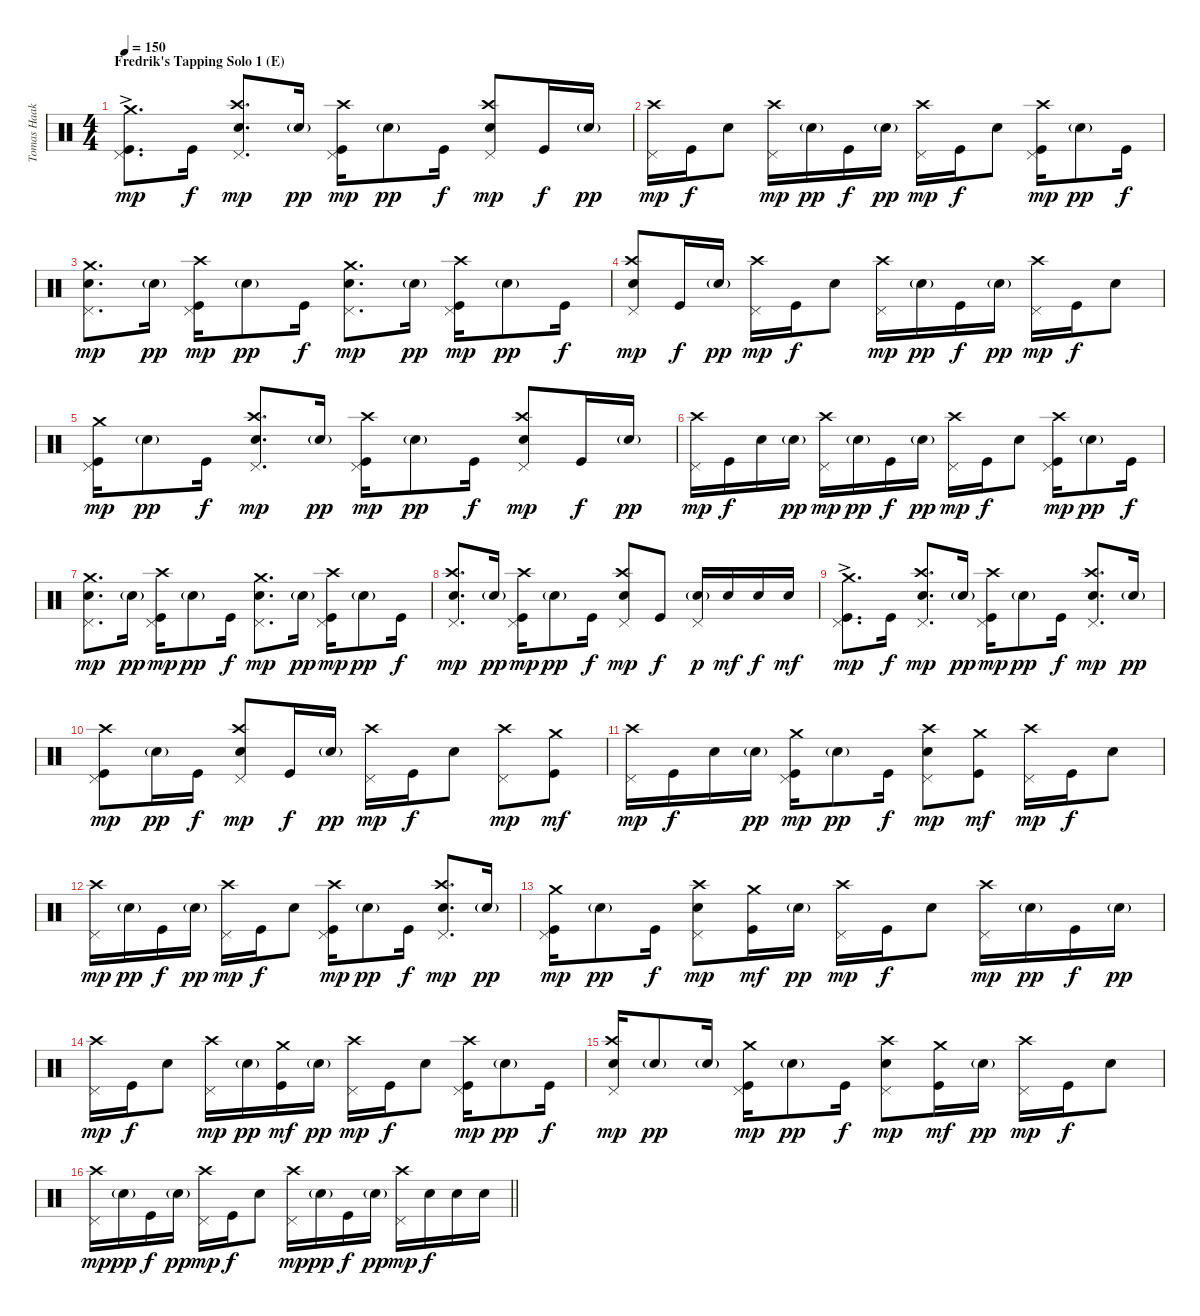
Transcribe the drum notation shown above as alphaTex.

\track ("Tomas Haake (Drums)" "Tomas Haak") {instrument percussion}
\staff {score}
\articulation defaults
\ts (4 4)
\section ("" "Fredrik's Tapping Solo 1 (E)")
\tempo 150
\clef neutral
\ks c
("Crash medium (hit)"{ac} "Pedal Hi-Hat (hit)" "Kick (hit)").8{d dy mp} "Kick (hit)".16{dy f} ("Crash high (hit)" "Pedal Hi-Hat (hit)" "Electric Snare (hit)").8{d dy mp} "Electric Snare (hit)"{g}.16{dy pp} ("Crash high (hit)" "Pedal Hi-Hat (hit)" "Kick (hit)").16{dy mp} "Electric Snare (hit)"{g}.8{dy pp} "Kick (hit)".16{dy f} ("Crash high (hit)" "Pedal Hi-Hat (hit)" "Electric Snare (hit)").8{dy mp} "Kick (hit)".16{dy f} "Electric Snare (hit)"{g}.16{dy pp} |
("Crash high (hit)" "Pedal Hi-Hat (hit)").16{dy mp} "Kick (hit)".16{dy f} "Electric Snare (hit)".8 ("Crash high (hit)" "Pedal Hi-Hat (hit)").16{dy mp} "Electric Snare (hit)"{g}.16{dy pp} "Kick (hit)".16{dy f} "Electric Snare (hit)"{g}.16{dy pp} ("Crash high (hit)" "Pedal Hi-Hat (hit)").16{dy mp} "Kick (hit)".16{dy f} "Electric Snare (hit)".8 ("Crash high (hit)" "Pedal Hi-Hat (hit)" "Kick (hit)").16{dy mp} "Electric Snare (hit)"{g}.8{dy pp} "Kick (hit)".16{dy f} |
("Crash medium (hit)" "Pedal Hi-Hat (hit)" "Electric Snare (hit)").8{d dy mp} "Electric Snare (hit)"{g}.16{dy pp} ("Crash high (hit)" "Pedal Hi-Hat (hit)" "Kick (hit)").16{dy mp} "Electric Snare (hit)"{g}.8{dy pp} "Kick (hit)".16{dy f} ("Crash medium (hit)" "Pedal Hi-Hat (hit)" "Electric Snare (hit)").8{d dy mp} "Electric Snare (hit)"{g}.16{dy pp} ("Crash high (hit)" "Pedal Hi-Hat (hit)" "Kick (hit)").16{dy mp} "Electric Snare (hit)"{g}.8{dy pp} "Kick (hit)".16{dy f} |
("Crash high (hit)" "Pedal Hi-Hat (hit)" "Electric Snare (hit)").8{dy mp} "Kick (hit)".16{dy f} "Electric Snare (hit)"{g}.16{dy pp} ("Crash high (hit)" "Pedal Hi-Hat (hit)").16{dy mp} "Kick (hit)".16{dy f} "Electric Snare (hit)".8 ("Crash high (hit)" "Pedal Hi-Hat (hit)").16{dy mp} "Electric Snare (hit)"{g}.16{dy pp} "Kick (hit)".16{dy f} "Electric Snare (hit)"{g}.16{dy pp} ("Crash high (hit)" "Pedal Hi-Hat (hit)").16{dy mp} "Kick (hit)".16{dy f} "Electric Snare (hit)".8 |
("Crash medium (hit)" "Pedal Hi-Hat (hit)" "Kick (hit)").16{dy mp} "Electric Snare (hit)"{g}.8{dy pp} "Kick (hit)".16{dy f} ("Crash high (hit)" "Pedal Hi-Hat (hit)" "Electric Snare (hit)").8{d dy mp} "Electric Snare (hit)"{g}.16{dy pp} ("Crash high (hit)" "Pedal Hi-Hat (hit)" "Kick (hit)").16{dy mp} "Electric Snare (hit)"{g}.8{dy pp} "Kick (hit)".16{dy f} ("Crash high (hit)" "Pedal Hi-Hat (hit)" "Electric Snare (hit)").8{dy mp} "Kick (hit)".16{dy f} "Electric Snare (hit)"{g}.16{dy pp} |
("Crash high (hit)" "Pedal Hi-Hat (hit)").16{dy mp} "Kick (hit)".16{dy f} "Electric Snare (hit)".16 "Electric Snare (hit)"{g}.16{dy pp} ("Crash high (hit)" "Pedal Hi-Hat (hit)").16{dy mp} "Electric Snare (hit)"{g}.16{dy pp} "Kick (hit)".16{dy f} "Electric Snare (hit)"{g}.16{dy pp} ("Crash high (hit)" "Pedal Hi-Hat (hit)").16{dy mp} "Kick (hit)".16{dy f} "Electric Snare (hit)".8 ("Crash high (hit)" "Pedal Hi-Hat (hit)" "Kick (hit)").16{dy mp} "Electric Snare (hit)"{g}.8{dy pp} "Kick (hit)".16{dy f} |
("Crash medium (hit)" "Pedal Hi-Hat (hit)" "Electric Snare (hit)").8{d dy mp} "Electric Snare (hit)"{g}.16{dy pp} ("Crash high (hit)" "Pedal Hi-Hat (hit)" "Kick (hit)").16{dy mp} "Electric Snare (hit)"{g}.8{dy pp} "Kick (hit)".16{dy f} ("Crash medium (hit)" "Pedal Hi-Hat (hit)" "Electric Snare (hit)").8{d dy mp} "Electric Snare (hit)"{g}.16{dy pp} ("Crash high (hit)" "Pedal Hi-Hat (hit)" "Kick (hit)").16{dy mp} "Electric Snare (hit)"{g}.8{dy pp} "Kick (hit)".16{dy f} |
("Crash high (hit)" "Pedal Hi-Hat (hit)" "Electric Snare (hit)").8{d dy mp} "Electric Snare (hit)"{g}.16{dy pp} ("Crash high (hit)" "Pedal Hi-Hat (hit)" "Kick (hit)").16{dy mp} "Electric Snare (hit)"{g}.8{dy pp} "Kick (hit)".16{dy f} ("Crash high (hit)" "Pedal Hi-Hat (hit)" "Electric Snare (hit)").8{dy mp} "Kick (hit)".8{dy f} ("Pedal Hi-Hat (hit)" "Electric Snare (hit)"{g}).16{dy p} "Electric Snare (hit)".16{dy mf} "Electric Snare (hit)".16{dy f} "Electric Snare (hit)".16{dy mf} |
("Crash medium (hit)"{ac} "Pedal Hi-Hat (hit)" "Kick (hit)").8{d dy mp} "Kick (hit)".16{dy f} ("Crash high (hit)" "Pedal Hi-Hat (hit)" "Electric Snare (hit)").8{d dy mp} "Electric Snare (hit)"{g}.16{dy pp} ("Crash high (hit)" "Pedal Hi-Hat (hit)" "Kick (hit)").16{dy mp} "Electric Snare (hit)"{g}.8{dy pp} "Kick (hit)".16{dy f} ("Crash high (hit)" "Pedal Hi-Hat (hit)" "Electric Snare (hit)").8{d dy mp} "Electric Snare (hit)"{g}.16{dy pp} |
("Crash high (hit)" "Pedal Hi-Hat (hit)" "Kick (hit)").8{dy mp} "Electric Snare (hit)"{g}.16{dy pp} "Kick (hit)".16{dy f} ("Crash high (hit)" "Pedal Hi-Hat (hit)" "Electric Snare (hit)").8{dy mp} "Kick (hit)".16{dy f} "Electric Snare (hit)"{g}.16{dy pp} ("Crash high (hit)" "Pedal Hi-Hat (hit)").16{dy mp} "Kick (hit)".16{dy f} "Electric Snare (hit)".8 ("Crash high (hit)" "Pedal Hi-Hat (hit)").8{dy mp} ("Crash medium (hit)" "Kick (hit)").8{dy mf} |
("Crash high (hit)" "Pedal Hi-Hat (hit)").16{dy mp} "Kick (hit)".16{dy f} "Electric Snare (hit)".16 "Electric Snare (hit)"{g}.16{dy pp} ("Crash medium (hit)" "Pedal Hi-Hat (hit)" "Kick (hit)").16{dy mp} "Electric Snare (hit)"{g}.8{dy pp} "Kick (hit)".16{dy f} ("Crash high (hit)" "Pedal Hi-Hat (hit)" "Electric Snare (hit)").8{dy mp} ("Crash medium (hit)" "Kick (hit)").8{dy mf} ("Crash high (hit)" "Pedal Hi-Hat (hit)").16{dy mp} "Kick (hit)".16{dy f} "Electric Snare (hit)".8 |
("Crash high (hit)" "Pedal Hi-Hat (hit)").16{dy mp} "Electric Snare (hit)"{g}.16{dy pp} "Kick (hit)".16{dy f} "Electric Snare (hit)"{g}.16{dy pp} ("Crash high (hit)" "Pedal Hi-Hat (hit)").16{dy mp} "Kick (hit)".16{dy f} "Electric Snare (hit)".8 ("Crash high (hit)" "Pedal Hi-Hat (hit)" "Kick (hit)").16{dy mp} "Electric Snare (hit)"{g}.8{dy pp} "Kick (hit)".16{dy f} ("Crash high (hit)" "Pedal Hi-Hat (hit)" "Electric Snare (hit)").8{d dy mp} "Electric Snare (hit)"{g}.16{dy pp} |
("Crash medium (hit)" "Pedal Hi-Hat (hit)" "Kick (hit)").16{dy mp} "Electric Snare (hit)"{g}.8{dy pp} "Kick (hit)".16{dy f} ("Crash high (hit)" "Pedal Hi-Hat (hit)" "Electric Snare (hit)").8{dy mp} ("Crash medium (hit)" "Kick (hit)").16{dy mf} "Electric Snare (hit)"{g}.16{dy pp} ("Crash high (hit)" "Pedal Hi-Hat (hit)").16{dy mp} "Kick (hit)".16{dy f} "Electric Snare (hit)".8 ("Crash high (hit)" "Pedal Hi-Hat (hit)").16{dy mp} "Electric Snare (hit)"{g}.16{dy pp} "Kick (hit)".16{dy f} "Electric Snare (hit)"{g}.16{dy pp} |
("Crash high (hit)" "Pedal Hi-Hat (hit)").16{dy mp} "Kick (hit)".16{dy f} "Electric Snare (hit)".8 ("Crash high (hit)" "Pedal Hi-Hat (hit)").16{dy mp} "Electric Snare (hit)"{g}.16{dy pp} ("Crash medium (hit)" "Kick (hit)").16{dy mf} "Electric Snare (hit)"{g}.16{dy pp} ("Crash high (hit)" "Pedal Hi-Hat (hit)").16{dy mp} "Kick (hit)".16{dy f} "Electric Snare (hit)".8 ("Crash high (hit)" "Pedal Hi-Hat (hit)" "Kick (hit)").16{dy mp} "Electric Snare (hit)"{g}.8{dy pp} "Kick (hit)".16{dy f} |
("Crash high (hit)" "Pedal Hi-Hat (hit)" "Electric Snare (hit)").16{dy mp} "Electric Snare (hit)"{g}.8{dy pp} "Electric Snare (hit)"{g}.16 ("Crash medium (hit)" "Pedal Hi-Hat (hit)" "Kick (hit)").16{dy mp} "Electric Snare (hit)"{g}.8{dy pp} "Kick (hit)".16{dy f} ("Crash high (hit)" "Pedal Hi-Hat (hit)" "Electric Snare (hit)").8{dy mp} ("Crash medium (hit)" "Kick (hit)").16{dy mf} "Electric Snare (hit)"{g}.16{dy pp} ("Crash high (hit)" "Pedal Hi-Hat (hit)").16{dy mp} "Kick (hit)".16{dy f} "Electric Snare (hit)".8 |
\barLineRight lightlight
("Crash high (hit)" "Pedal Hi-Hat (hit)").16{dy mp} "Electric Snare (hit)"{g}.16{dy pp} "Kick (hit)".16{dy f} "Electric Snare (hit)"{g}.16{dy pp} ("Crash high (hit)" "Pedal Hi-Hat (hit)").16{dy mp} "Kick (hit)".16{dy f} "Electric Snare (hit)".8 ("Crash high (hit)" "Pedal Hi-Hat (hit)").16{dy mp} "Electric Snare (hit)"{g}.16{dy pp} "Kick (hit)".16{dy f} "Electric Snare (hit)"{g}.16{dy pp} ("Crash high (hit)" "Pedal Hi-Hat (hit)").16{dy mp} "Electric Snare (hit)".16{dy f} "Electric Snare (hit)".16 "Electric Snare (hit)".16
